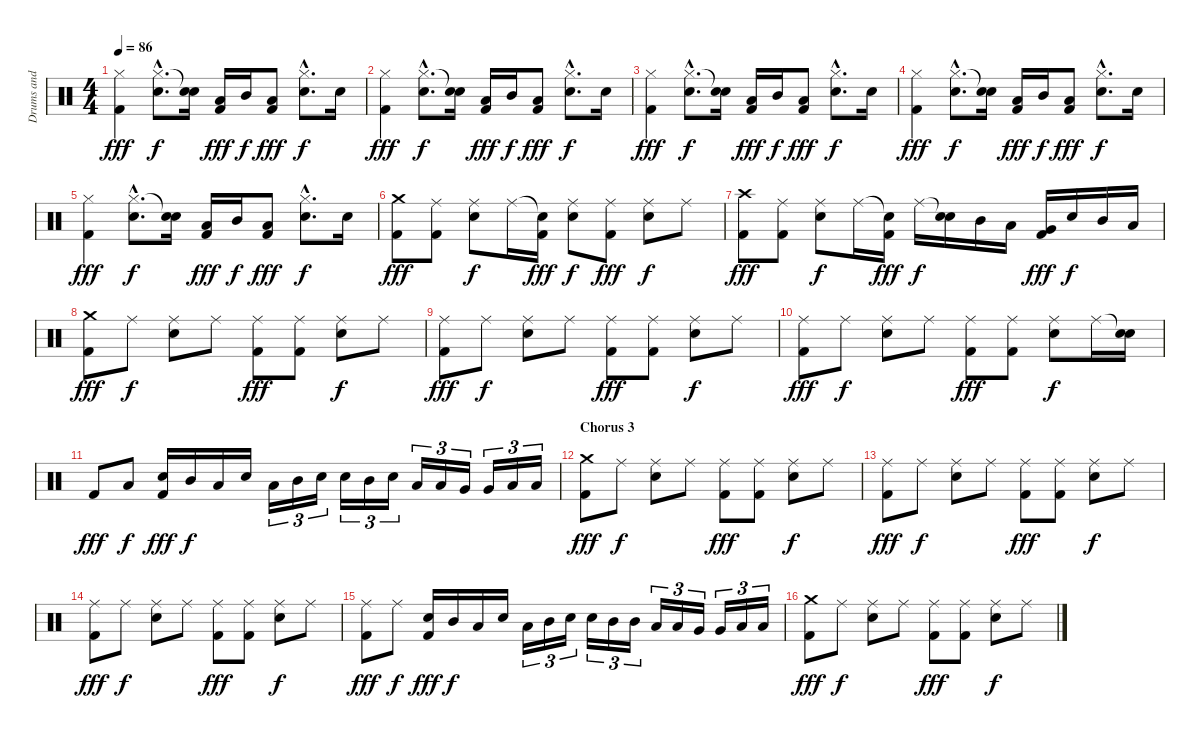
\track ("Drums and Percussion" "Drums and ") {instrument percussion}
\staff {score}
\articulation defaults
\ts (4 4)
\tempo 86
\clef neutral
\ks c
("Hi-Hat (closed)" "Kick (hit) 2").4{dy fff} ("Hi-Hat (closed)"{hac} "Snare (hit) 2"{hac}).8{d dy f} ("Snare (hit)"{t} "Snare (hit) 2").16 ("Low Tom (hit)" "Kick (hit) 2").16{dy fff} "Mid Tom (hit)".16{dy f} ("Low Tom (hit)" "Kick (hit) 2").8{dy fff} ("Hi-Hat (closed)"{hac} "Snare (hit) 2"{hac}).8{d dy f} "Snare (hit) 2".16 |
("Hi-Hat (closed)" "Kick (hit) 2").4{dy fff} ("Hi-Hat (closed)"{hac} "Snare (hit) 2"{hac}).8{d dy f} ("Snare (hit)"{t} "Snare (hit) 2").16 ("Low Tom (hit)" "Kick (hit) 2").16{dy fff} "Mid Tom (hit)".16{dy f} ("Low Tom (hit)" "Kick (hit) 2").8{dy fff} ("Hi-Hat (closed)"{hac} "Snare (hit) 2"{hac}).8{d dy f} "Snare (hit) 2".16 |
("Hi-Hat (closed)" "Kick (hit) 2").4{dy fff} ("Hi-Hat (closed)"{hac} "Snare (hit) 2"{hac}).8{d dy f} ("Snare (hit)"{t} "Snare (hit) 2").16 ("Low Tom (hit)" "Kick (hit) 2").16{dy fff} "Mid Tom (hit)".16{dy f} ("Low Tom (hit)" "Kick (hit) 2").8{dy fff} ("Hi-Hat (closed)"{hac} "Snare (hit) 2"{hac}).8{d dy f} "Snare (hit) 2".16 |
("Hi-Hat (closed)" "Kick (hit) 2").4{dy fff} ("Hi-Hat (closed)"{hac} "Snare (hit) 2"{hac}).8{d dy f} ("Snare (hit)"{t} "Snare (hit) 2").16 ("Low Tom (hit)" "Kick (hit) 2").16{dy fff} "Mid Tom (hit)".16{dy f} ("Low Tom (hit)" "Kick (hit) 2").8{dy fff} ("Hi-Hat (closed)"{hac} "Snare (hit) 2"{hac}).8{d dy f} "Snare (hit) 2".16 |
("Hi-Hat (closed)" "Kick (hit) 2").4{dy fff} ("Hi-Hat (closed)"{hac} "Snare (hit) 2"{hac}).8{d dy f} ("Snare (hit)"{t} "Snare (hit) 2").16 ("Low Tom (hit)" "Kick (hit) 2").16{dy fff} "Mid Tom (hit)".16{dy f} ("Low Tom (hit)" "Kick (hit) 2").8{dy fff} ("Hi-Hat (closed)"{hac} "Snare (hit) 2"{hac}).8{d dy f} "Snare (hit) 2".16 |
("Crash medium (hit)" "Kick (hit) 2").8{dy fff} ("Ride (middle)" "Kick (hit) 2").8 ("Ride (middle)" "Snare (hit) 2").8{dy f} "Ride (middle)".16 ("Snare (hit)"{t} "Kick (hit) 2").16{dy fff} ("Ride (middle)" "Snare (hit) 2").8{dy f} ("Ride (middle)" "Kick (hit) 2").8{dy fff} ("Ride (middle)" "Snare (hit) 2").8{dy f} "Ride (middle)".8 |
("Crash high (hit)" "Kick (hit) 2").8{dy fff} ("Ride (middle)" "Kick (hit) 2").8 ("Ride (middle)" "Snare (hit) 2").8{dy f} "Ride (middle)".16 ("Snare (hit)"{t} "Kick (hit) 2").16{dy fff} "Ride (middle)".16{dy f} ("Snare (hit)"{t} "Snare (hit) 2").16 "Mid Tom (hit)".16 "Low Tom (hit)".16 ("Very Low Tom (hit)" "Kick (hit) 2").16{dy fff} "Snare (hit) 2".16{dy f} "Mid Tom (hit)".16 "Low Tom (hit)".16 |
("Crash medium (hit)" "Kick (hit) 2").8{dy fff} "Ride (middle)".8{dy f} ("Ride (middle)" "Snare (hit) 2").8 "Ride (middle)".8 ("Ride (middle)" "Kick (hit) 2").8{dy fff} ("Ride (middle)" "Kick (hit) 2").8 ("Ride (middle)" "Snare (hit) 2").8{dy f} "Ride (middle)".8 |
("Ride (middle)" "Kick (hit) 2").8{dy fff} "Ride (middle)".8{dy f} ("Ride (middle)" "Snare (hit) 2").8 "Ride (middle)".8 ("Ride (middle)" "Kick (hit) 2").8{dy fff} ("Ride (middle)" "Kick (hit) 2").8 ("Ride (middle)" "Snare (hit) 2").8{dy f} "Ride (middle)".8 |
("Ride (middle)" "Kick (hit) 2").8{dy fff} "Ride (middle)".8{dy f} ("Ride (middle)" "Snare (hit) 2").8 "Ride (middle)".8 ("Ride (middle)" "Kick (hit) 2").8{dy fff} ("Ride (middle)" "Kick (hit) 2").8 ("Ride (middle)" "Snare (hit) 2").8{dy f} "Ride (middle)".16 ("Snare (hit)"{t} "Snare (hit) 2").16 |
"Kick (hit) 2".8{dy fff} "Low Tom (hit)".8{dy f} ("Snare (hit) 2" "Kick (hit) 2").16{dy fff} "Mid Tom (hit)".16{dy f} "Low Tom (hit)".16 "Snare (hit) 2".16 "Low Tom (hit)".16{tu (3 2)} "Mid Tom (hit)".16{tu (3 2)} "Snare (hit) 2".16{tu (3 2)} "Snare (hit) 2".16{tu (3 2)} "Mid Tom (hit)".16{tu (3 2)} "Snare (hit) 2".16{tu (3 2)} "Low Tom (hit)".16{tu (3 2)} "Low Tom (hit)".16{tu (3 2)} "Very Low Tom (hit)".16{tu (3 2)} "Very Low Tom (hit)".16{tu (3 2)} "Low Floor Tom (hit)".16{tu (3 2)} "Low Floor Tom (hit)".16{tu (3 2)} |
\section ("" "Chorus 3")
("Crash medium (hit)" "Kick (hit) 2").8{dy fff} "Ride (middle)".8{dy f} ("Ride (middle)" "Snare (hit) 2").8 "Ride (middle)".8 ("Ride (middle)" "Kick (hit) 2").8{dy fff} ("Ride (middle)" "Kick (hit) 2").8 ("Ride (middle)" "Snare (hit) 2").8{dy f} "Ride (middle)".8 |
("Ride (middle)" "Kick (hit) 2").8{dy fff} "Ride (middle)".8{dy f} ("Ride (middle)" "Snare (hit) 2").8 "Ride (middle)".8 ("Ride (middle)" "Kick (hit) 2").8{dy fff} ("Ride (middle)" "Kick (hit) 2").8 ("Ride (middle)" "Snare (hit) 2").8{dy f} "Ride (middle)".8 |
("Ride (middle)" "Kick (hit) 2").8{dy fff} "Ride (middle)".8{dy f} ("Ride (middle)" "Snare (hit) 2").8 "Ride (middle)".8 ("Ride (middle)" "Kick (hit) 2").8{dy fff} ("Ride (middle)" "Kick (hit) 2").8 ("Ride (middle)" "Snare (hit) 2").8{dy f} "Ride (middle)".8 |
("Ride (middle)" "Kick (hit) 2").8{dy fff} "Ride (middle)".8{dy f} ("Snare (hit) 2" "Kick (hit) 2").16{dy fff} "Mid Tom (hit)".16{dy f} "Low Tom (hit)".16 "Snare (hit) 2".16 "Low Tom (hit)".16{tu (3 2)} "Mid Tom (hit)".16{tu (3 2)} "Snare (hit) 2".16{tu (3 2)} "Snare (hit) 2".16{tu (3 2)} "Mid Tom (hit)".16{tu (3 2)} "Mid Tom (hit)".16{tu (3 2)} "Low Tom (hit)".16{tu (3 2)} "Low Tom (hit)".16{tu (3 2)} "Very Low Tom (hit)".16{tu (3 2)} "Very Low Tom (hit)".16{tu (3 2)} "Low Floor Tom (hit)".16{tu (3 2)} "Low Floor Tom (hit)".16{tu (3 2)} |
("Crash medium (hit)" "Kick (hit) 2").8{dy fff} "Ride (middle)".8{dy f} ("Ride (middle)" "Snare (hit) 2").8 "Ride (middle)".8 ("Ride (middle)" "Kick (hit) 2").8{dy fff} ("Ride (middle)" "Kick (hit) 2").8 ("Ride (middle)" "Snare (hit) 2").8{dy f} "Ride (middle)".8
